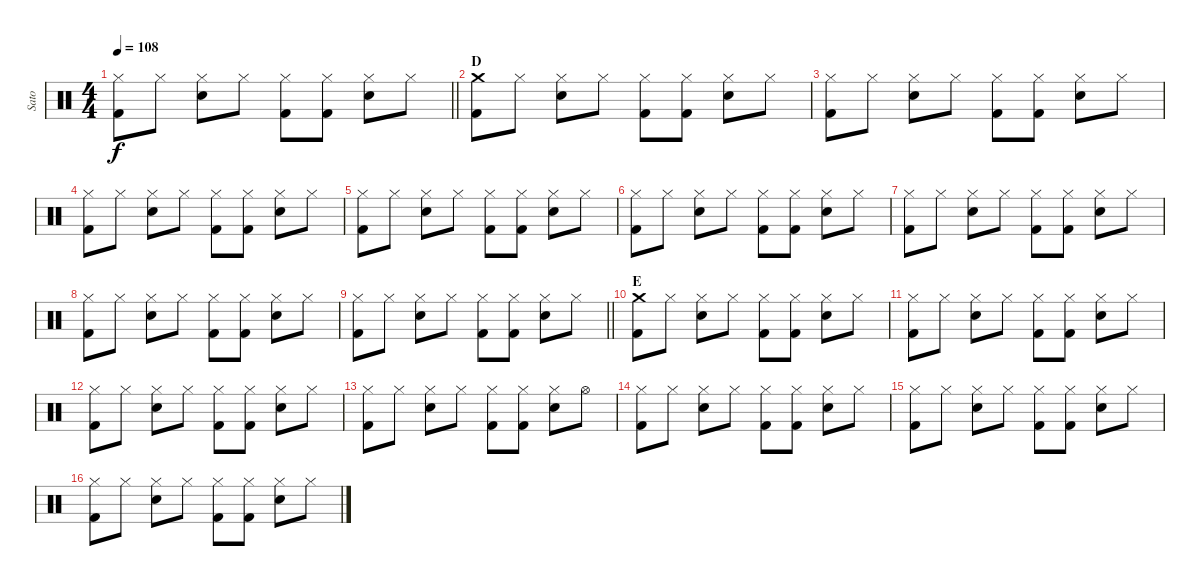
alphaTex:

\track ("Sato" "Sato") {instrument percussion}
\staff {score}
\articulation defaults
\ts (4 4)
\tempo 108
\clef neutral
\barLineRight lightlight
\ks c
("Hi-Hat (closed)" "Kick (hit) 2").8{dy f} "Hi-Hat (closed)".8 ("Hi-Hat (closed)" "Electric Snare (hit)").8 "Hi-Hat (closed)".8 ("Hi-Hat (closed)" "Kick (hit) 2").8 ("Hi-Hat (closed)" "Kick (hit) 2").8 ("Hi-Hat (closed)" "Electric Snare (hit)").8 "Hi-Hat (closed)".8 |
\section ("" "D")
("Crash medium (hit)" "Kick (hit) 2").8 "Hi-Hat (closed)".8 ("Hi-Hat (closed)" "Electric Snare (hit)").8 "Hi-Hat (closed)".8 ("Hi-Hat (closed)" "Kick (hit) 2").8 ("Hi-Hat (closed)" "Kick (hit) 2").8 ("Hi-Hat (closed)" "Electric Snare (hit)").8 "Hi-Hat (closed)".8 |
("Hi-Hat (closed)" "Kick (hit) 2").8 "Hi-Hat (closed)".8 ("Hi-Hat (closed)" "Electric Snare (hit)").8 "Hi-Hat (closed)".8 ("Hi-Hat (closed)" "Kick (hit) 2").8 ("Hi-Hat (closed)" "Kick (hit) 2").8 ("Hi-Hat (closed)" "Electric Snare (hit)").8 "Hi-Hat (closed)".8 |
("Hi-Hat (closed)" "Kick (hit) 2").8 "Hi-Hat (closed)".8 ("Hi-Hat (closed)" "Electric Snare (hit)").8 "Hi-Hat (closed)".8 ("Hi-Hat (closed)" "Kick (hit) 2").8 ("Hi-Hat (closed)" "Kick (hit) 2").8 ("Hi-Hat (closed)" "Electric Snare (hit)").8 "Hi-Hat (closed)".8 |
("Hi-Hat (closed)" "Kick (hit) 2").8 "Hi-Hat (closed)".8 ("Hi-Hat (closed)" "Electric Snare (hit)").8 "Hi-Hat (closed)".8 ("Hi-Hat (closed)" "Kick (hit) 2").8 ("Hi-Hat (closed)" "Kick (hit) 2").8 ("Hi-Hat (closed)" "Electric Snare (hit)").8 "Hi-Hat (closed)".8 |
("Hi-Hat (closed)" "Kick (hit) 2").8 "Hi-Hat (closed)".8 ("Hi-Hat (closed)" "Electric Snare (hit)").8 "Hi-Hat (closed)".8 ("Hi-Hat (closed)" "Kick (hit) 2").8 ("Hi-Hat (closed)" "Kick (hit) 2").8 ("Hi-Hat (closed)" "Electric Snare (hit)").8 "Hi-Hat (closed)".8 |
("Hi-Hat (closed)" "Kick (hit) 2").8 "Hi-Hat (closed)".8 ("Hi-Hat (closed)" "Electric Snare (hit)").8 "Hi-Hat (closed)".8 ("Hi-Hat (closed)" "Kick (hit) 2").8 ("Hi-Hat (closed)" "Kick (hit) 2").8 ("Hi-Hat (closed)" "Electric Snare (hit)").8 "Hi-Hat (closed)".8 |
("Hi-Hat (closed)" "Kick (hit) 2").8 "Hi-Hat (closed)".8 ("Hi-Hat (closed)" "Electric Snare (hit)").8 "Hi-Hat (closed)".8 ("Hi-Hat (closed)" "Kick (hit) 2").8 ("Hi-Hat (closed)" "Kick (hit) 2").8 ("Hi-Hat (closed)" "Electric Snare (hit)").8 "Hi-Hat (closed)".8 |
\barLineRight lightlight
("Hi-Hat (closed)" "Kick (hit) 2").8 "Hi-Hat (closed)".8 ("Hi-Hat (closed)" "Electric Snare (hit)").8 "Hi-Hat (closed)".8 ("Hi-Hat (closed)" "Kick (hit) 2").8 ("Hi-Hat (closed)" "Kick (hit) 2").8 ("Hi-Hat (closed)" "Electric Snare (hit)").8 "Hi-Hat (closed)".8 |
\section ("" "E")
("Crash medium (hit)" "Kick (hit) 2").8 "Hi-Hat (closed)".8 ("Hi-Hat (closed)" "Electric Snare (hit)").8 "Hi-Hat (closed)".8 ("Hi-Hat (closed)" "Kick (hit) 2").8 ("Hi-Hat (closed)" "Kick (hit) 2").8 ("Hi-Hat (closed)" "Electric Snare (hit)").8 "Hi-Hat (closed)".8 |
("Hi-Hat (closed)" "Kick (hit) 2").8 "Hi-Hat (closed)".8 ("Hi-Hat (closed)" "Electric Snare (hit)").8 "Hi-Hat (closed)".8 ("Hi-Hat (closed)" "Kick (hit) 2").8 ("Hi-Hat (closed)" "Kick (hit) 2").8 ("Hi-Hat (closed)" "Electric Snare (hit)").8 "Hi-Hat (closed)".8 |
("Hi-Hat (closed)" "Kick (hit) 2").8 "Hi-Hat (closed)".8 ("Hi-Hat (closed)" "Electric Snare (hit)").8 "Hi-Hat (closed)".8 ("Hi-Hat (closed)" "Kick (hit) 2").8 ("Hi-Hat (closed)" "Kick (hit) 2").8 ("Hi-Hat (closed)" "Electric Snare (hit)").8 "Hi-Hat (closed)".8 |
("Hi-Hat (closed)" "Kick (hit) 2").8 "Hi-Hat (closed)".8 ("Hi-Hat (closed)" "Electric Snare (hit)").8 "Hi-Hat (closed)".8 ("Hi-Hat (closed)" "Kick (hit) 2").8 ("Hi-Hat (closed)" "Kick (hit) 2").8 ("Hi-Hat (closed)" "Electric Snare (hit)").8 "Hi-Hat (open)".8 |
("Hi-Hat (closed)" "Kick (hit) 2").8 "Hi-Hat (closed)".8 ("Hi-Hat (closed)" "Electric Snare (hit)").8 "Hi-Hat (closed)".8 ("Hi-Hat (closed)" "Kick (hit) 2").8 ("Hi-Hat (closed)" "Kick (hit) 2").8 ("Hi-Hat (closed)" "Electric Snare (hit)").8 "Hi-Hat (closed)".8 |
("Hi-Hat (closed)" "Kick (hit) 2").8 "Hi-Hat (closed)".8 ("Hi-Hat (closed)" "Electric Snare (hit)").8 "Hi-Hat (closed)".8 ("Hi-Hat (closed)" "Kick (hit) 2").8 ("Hi-Hat (closed)" "Kick (hit) 2").8 ("Hi-Hat (closed)" "Electric Snare (hit)").8 "Hi-Hat (closed)".8 |
("Hi-Hat (closed)" "Kick (hit) 2").8 "Hi-Hat (closed)".8 ("Hi-Hat (closed)" "Electric Snare (hit)").8 "Hi-Hat (closed)".8 ("Hi-Hat (closed)" "Kick (hit) 2").8 ("Hi-Hat (closed)" "Kick (hit) 2").8 ("Hi-Hat (closed)" "Electric Snare (hit)").8 "Hi-Hat (closed)".8
